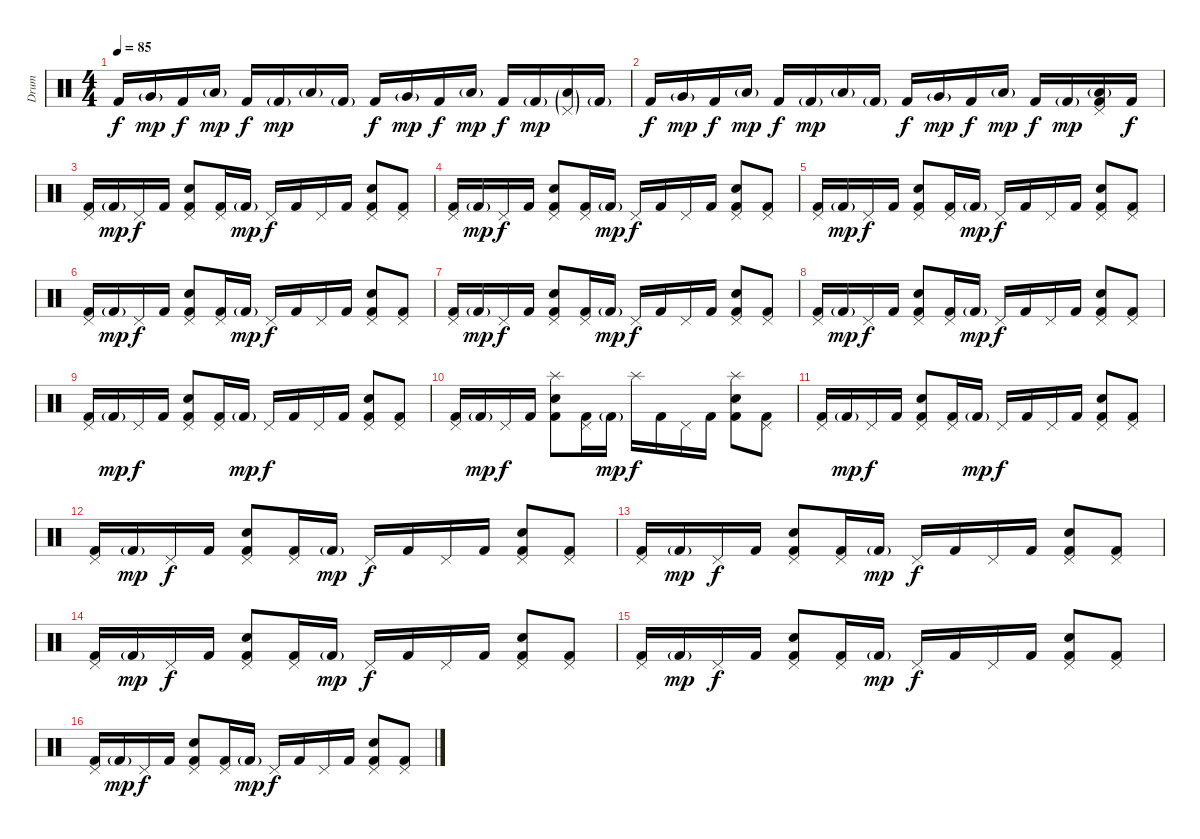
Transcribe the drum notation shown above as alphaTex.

\track ("Drum" "Drum") {instrument percussion}
\staff {score}
\articulation defaults
\ts (4 4)
\tempo 85
\clef neutral
\ks c "Kick (hit) 2".16{dy f} "Very Low Tom (hit)"{g}.16{dy mp} "Kick (hit) 2".16{dy f} "Low Floor Tom (hit)"{g}.16{dy mp} "Kick (hit) 2".16{dy f} "Kick (hit) 2"{g}.16{dy mp} "Low Floor Tom (hit)"{g}.16 "Kick (hit) 2"{g}.16 "Kick (hit) 2".16{dy f} "Very Low Tom (hit)"{g}.16{dy mp} "Kick (hit) 2".16{dy f} "Low Floor Tom (hit)"{g}.16{dy mp} "Kick (hit) 2".16{dy f} "Kick (hit) 2"{g}.16{dy mp}
("Low Floor Tom (hit)"{g} "Pedal Hi-Hat (hit)"{g}).16 "Kick (hit) 2"{g}.16 |
"Kick (hit) 2".16{dy f} "Very Low Tom (hit)"{g}.16{dy mp} "Kick (hit) 2".16{dy f} "Low Floor Tom (hit)"{g}.16{dy mp} "Kick (hit) 2".16{dy f} "Kick (hit) 2"{g}.16{dy mp} "Low Floor Tom (hit)"{g}.16 "Kick (hit) 2"{g}.16 "Kick (hit) 2".16{dy f} "Very Low Tom (hit)"{g}.16{dy mp} "Kick (hit) 2".16{dy f} "Low Floor Tom (hit)"{g}.16{dy mp} "Kick (hit) 2".16{dy f} "Kick (hit) 2"{g}.16{dy mp} ("Kick (hit) 2" "Low Floor Tom (hit)"{g} "Pedal Hi-Hat (hit)").16 "Kick (hit) 2".16{dy f} |
("Kick (hit) 2" "Pedal Hi-Hat (hit)").16 "Kick (hit) 2"{g}.16{dy mp} "Pedal Hi-Hat (hit)".16{dy f} "Kick (hit) 2".16 ("Kick (hit) 2" "Snare (hit) 2" "Pedal Hi-Hat (hit)").8 ("Kick (hit) 2" "Pedal Hi-Hat (hit)").16 "Kick (hit) 2"{g}.16{dy mp} "Pedal Hi-Hat (hit)".16{dy f} "Kick (hit) 2".16 "Pedal Hi-Hat (hit)".16 "Kick (hit) 2".16 ("Kick (hit) 2" "Snare (hit) 2" "Pedal Hi-Hat (hit)").8 ("Kick (hit) 2" "Pedal Hi-Hat (hit)").8 |
("Kick (hit) 2" "Pedal Hi-Hat (hit)").16 "Kick (hit) 2"{g}.16{dy mp} "Pedal Hi-Hat (hit)".16{dy f} "Kick (hit) 2".16 ("Kick (hit) 2" "Snare (hit) 2" "Pedal Hi-Hat (hit)").8 ("Kick (hit) 2" "Pedal Hi-Hat (hit)").16 "Kick (hit) 2"{g}.16{dy mp} "Pedal Hi-Hat (hit)".16{dy f} "Kick (hit) 2".16 "Pedal Hi-Hat (hit)".16 "Kick (hit) 2".16 ("Kick (hit) 2" "Snare (hit) 2" "Pedal Hi-Hat (hit)").8 ("Kick (hit) 2" "Pedal Hi-Hat (hit)").8 |
("Kick (hit) 2" "Pedal Hi-Hat (hit)").16 "Kick (hit) 2"{g}.16{dy mp} "Pedal Hi-Hat (hit)".16{dy f} "Kick (hit) 2".16 ("Kick (hit) 2" "Snare (hit) 2" "Pedal Hi-Hat (hit)").8 ("Kick (hit) 2" "Pedal Hi-Hat (hit)").16 "Kick (hit) 2"{g}.16{dy mp} "Pedal Hi-Hat (hit)".16{dy f} "Kick (hit) 2".16 "Pedal Hi-Hat (hit)".16 "Kick (hit) 2".16 ("Kick (hit) 2" "Snare (hit) 2" "Pedal Hi-Hat (hit)").8 ("Kick (hit) 2" "Pedal Hi-Hat (hit)").8 |
("Kick (hit) 2" "Pedal Hi-Hat (hit)").16 "Kick (hit) 2"{g}.16{dy mp} "Pedal Hi-Hat (hit)".16{dy f} "Kick (hit) 2".16 ("Kick (hit) 2" "Snare (hit) 2" "Pedal Hi-Hat (hit)").8 ("Kick (hit) 2" "Pedal Hi-Hat (hit)").16 "Kick (hit) 2"{g}.16{dy mp} "Pedal Hi-Hat (hit)".16{dy f} "Kick (hit) 2".16 "Pedal Hi-Hat (hit)".16 "Kick (hit) 2".16 ("Kick (hit) 2" "Snare (hit) 2" "Pedal Hi-Hat (hit)").8 ("Kick (hit) 2" "Pedal Hi-Hat (hit)").8 |
("Kick (hit) 2" "Pedal Hi-Hat (hit)").16 "Kick (hit) 2"{g}.16{dy mp} "Pedal Hi-Hat (hit)".16{dy f} "Kick (hit) 2".16 ("Kick (hit) 2" "Snare (hit) 2" "Pedal Hi-Hat (hit)").8 ("Kick (hit) 2" "Pedal Hi-Hat (hit)").16 "Kick (hit) 2"{g}.16{dy mp} "Pedal Hi-Hat (hit)".16{dy f} "Kick (hit) 2".16 "Pedal Hi-Hat (hit)".16 "Kick (hit) 2".16 ("Kick (hit) 2" "Snare (hit) 2" "Pedal Hi-Hat (hit)").8 ("Kick (hit) 2" "Pedal Hi-Hat (hit)").8 |
("Kick (hit) 2" "Pedal Hi-Hat (hit)").16 "Kick (hit) 2"{g}.16{dy mp} "Pedal Hi-Hat (hit)".16{dy f} "Kick (hit) 2".16 ("Kick (hit) 2" "Snare (hit) 2" "Pedal Hi-Hat (hit)").8 ("Kick (hit) 2" "Pedal Hi-Hat (hit)").16 "Kick (hit) 2"{g}.16{dy mp} "Pedal Hi-Hat (hit)".16{dy f} "Kick (hit) 2".16 "Pedal Hi-Hat (hit)".16 "Kick (hit) 2".16 ("Kick (hit) 2" "Snare (hit) 2" "Pedal Hi-Hat (hit)").8 ("Kick (hit) 2" "Pedal Hi-Hat (hit)").8 |
("Kick (hit) 2" "Pedal Hi-Hat (hit)").16 "Kick (hit) 2"{g}.16{dy mp} "Pedal Hi-Hat (hit)".16{dy f} "Kick (hit) 2".16 ("Kick (hit) 2" "Snare (hit) 2" "Pedal Hi-Hat (hit)").8 ("Kick (hit) 2" "Pedal Hi-Hat (hit)").16 "Kick (hit) 2"{g}.16{dy mp} "Pedal Hi-Hat (hit)".16{dy f} "Kick (hit) 2".16 "Pedal Hi-Hat (hit)".16 "Kick (hit) 2".16 ("Kick (hit) 2" "Snare (hit) 2" "Pedal Hi-Hat (hit)").8 ("Kick (hit) 2" "Pedal Hi-Hat (hit)").8 |
("Kick (hit) 2" "Pedal Hi-Hat (hit)").16 "Kick (hit) 2"{g}.16{dy mp} "Pedal Hi-Hat (hit)".16{dy f} "Kick (hit) 2".16 ("Kick (hit) 2" "Snare (hit) 2" "Splash (hit)").8 ("Kick (hit) 2" "Pedal Hi-Hat (hit)").16 "Kick (hit) 2"{g}.16{dy mp} "Splash (hit)".16{dy f} "Kick (hit) 2".16 "Pedal Hi-Hat (hit)".16 "Kick (hit) 2".16 ("Kick (hit) 2" "Snare (hit) 2" "Splash (hit)").8 ("Kick (hit) 2" "Pedal Hi-Hat (hit)").8 |
("Kick (hit) 2" "Pedal Hi-Hat (hit)").16 "Kick (hit) 2"{g}.16{dy mp} "Pedal Hi-Hat (hit)".16{dy f} "Kick (hit) 2".16 ("Kick (hit) 2" "Snare (hit) 2" "Pedal Hi-Hat (hit)").8 ("Kick (hit) 2" "Pedal Hi-Hat (hit)").16 "Kick (hit) 2"{g}.16{dy mp} "Pedal Hi-Hat (hit)".16{dy f} "Kick (hit) 2".16 "Pedal Hi-Hat (hit)".16 "Kick (hit) 2".16 ("Kick (hit) 2" "Snare (hit) 2" "Pedal Hi-Hat (hit)").8 ("Kick (hit) 2" "Pedal Hi-Hat (hit)").8 |
("Kick (hit) 2" "Pedal Hi-Hat (hit)").16 "Kick (hit) 2"{g}.16{dy mp} "Pedal Hi-Hat (hit)".16{dy f} "Kick (hit) 2".16 ("Kick (hit) 2" "Snare (hit) 2" "Pedal Hi-Hat (hit)").8 ("Kick (hit) 2" "Pedal Hi-Hat (hit)").16 "Kick (hit) 2"{g}.16{dy mp} "Pedal Hi-Hat (hit)".16{dy f} "Kick (hit) 2".16 "Pedal Hi-Hat (hit)".16 "Kick (hit) 2".16 ("Kick (hit) 2" "Snare (hit) 2" "Pedal Hi-Hat (hit)").8 ("Kick (hit) 2" "Pedal Hi-Hat (hit)").8 |
("Kick (hit) 2" "Pedal Hi-Hat (hit)").16 "Kick (hit) 2"{g}.16{dy mp} "Pedal Hi-Hat (hit)".16{dy f} "Kick (hit) 2".16 ("Kick (hit) 2" "Snare (hit) 2" "Pedal Hi-Hat (hit)").8 ("Kick (hit) 2" "Pedal Hi-Hat (hit)").16 "Kick (hit) 2"{g}.16{dy mp} "Pedal Hi-Hat (hit)".16{dy f} "Kick (hit) 2".16 "Pedal Hi-Hat (hit)".16 "Kick (hit) 2".16 ("Kick (hit) 2" "Snare (hit) 2" "Pedal Hi-Hat (hit)").8 ("Kick (hit) 2" "Pedal Hi-Hat (hit)").8 |
("Kick (hit) 2" "Pedal Hi-Hat (hit)").16 "Kick (hit) 2"{g}.16{dy mp} "Pedal Hi-Hat (hit)".16{dy f} "Kick (hit) 2".16 ("Kick (hit) 2" "Snare (hit) 2" "Pedal Hi-Hat (hit)").8 ("Kick (hit) 2" "Pedal Hi-Hat (hit)").16 "Kick (hit) 2"{g}.16{dy mp} "Pedal Hi-Hat (hit)".16{dy f} "Kick (hit) 2".16 "Pedal Hi-Hat (hit)".16 "Kick (hit) 2".16 ("Kick (hit) 2" "Snare (hit) 2" "Pedal Hi-Hat (hit)").8 ("Kick (hit) 2" "Pedal Hi-Hat (hit)").8 |
("Kick (hit) 2" "Pedal Hi-Hat (hit)").16 "Kick (hit) 2"{g}.16{dy mp} "Pedal Hi-Hat (hit)".16{dy f} "Kick (hit) 2".16 ("Kick (hit) 2" "Snare (hit) 2" "Pedal Hi-Hat (hit)").8 ("Kick (hit) 2" "Pedal Hi-Hat (hit)").16 "Kick (hit) 2"{g}.16{dy mp} "Pedal Hi-Hat (hit)".16{dy f} "Kick (hit) 2".16 "Pedal Hi-Hat (hit)".16 "Kick (hit) 2".16 ("Kick (hit) 2" "Snare (hit) 2" "Pedal Hi-Hat (hit)").8 ("Kick (hit) 2" "Pedal Hi-Hat (hit)").8 |
("Kick (hit) 2" "Pedal Hi-Hat (hit)").16 "Kick (hit) 2"{g}.16{dy mp} "Pedal Hi-Hat (hit)".16{dy f} "Kick (hit) 2".16 ("Kick (hit) 2" "Snare (hit) 2" "Pedal Hi-Hat (hit)").8 ("Kick (hit) 2" "Pedal Hi-Hat (hit)").16 "Kick (hit) 2"{g}.16{dy mp} "Pedal Hi-Hat (hit)".16{dy f} "Kick (hit) 2".16 "Pedal Hi-Hat (hit)".16 "Kick (hit) 2".16 ("Kick (hit) 2" "Snare (hit) 2" "Pedal Hi-Hat (hit)").8 ("Kick (hit) 2" "Pedal Hi-Hat (hit)").8
